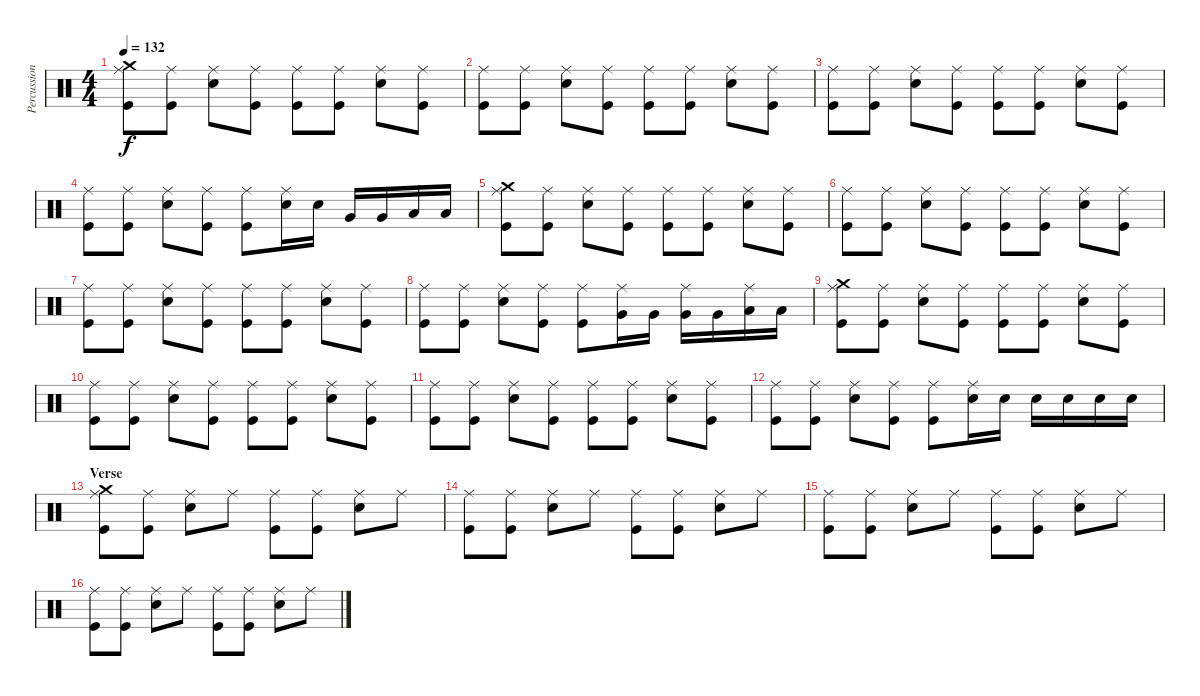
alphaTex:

\track ("Percussions" "Percussion") {instrument percussion}
\staff {score}
\articulation defaults
\ts (4 4)
\tempo 132
\clef neutral
\ks c
("Ride (middle)" "Crash medium (hit)" "Kick (hit)").8{dy f} ("Ride (middle)" "Kick (hit)").8 ("Ride (middle)" "Snare (hit) 2").8 ("Ride (middle)" "Kick (hit)").8 ("Ride (middle)" "Kick (hit)").8 ("Ride (middle)" "Kick (hit)").8 ("Ride (middle)" "Snare (hit) 2").8 ("Ride (middle)" "Kick (hit)").8 |
("Ride (middle)" "Kick (hit)").8 ("Ride (middle)" "Kick (hit)").8 ("Ride (middle)" "Snare (hit) 2").8 ("Ride (middle)" "Kick (hit)").8 ("Ride (middle)" "Kick (hit)").8 ("Ride (middle)" "Kick (hit)").8 ("Ride (middle)" "Snare (hit) 2").8 ("Ride (middle)" "Kick (hit)").8 |
("Ride (middle)" "Kick (hit)").8 ("Ride (middle)" "Kick (hit)").8 ("Ride (middle)" "Snare (hit) 2").8 ("Ride (middle)" "Kick (hit)").8 ("Ride (middle)" "Kick (hit)").8 ("Ride (middle)" "Kick (hit)").8 ("Ride (middle)" "Snare (hit) 2").8 ("Ride (middle)" "Kick (hit)").8 |
("Ride (middle)" "Kick (hit)").8 ("Ride (middle)" "Kick (hit)").8 ("Ride (middle)" "Snare (hit) 2").8 ("Ride (middle)" "Kick (hit)").8 ("Ride (middle)" "Kick (hit)").8 ("Ride (middle)" "Snare (hit) 2").16 "Snare (hit) 2".16 "Very Low Tom (hit)".16 "Very Low Tom (hit)".16 "Low Floor Tom (hit)".16 "Low Floor Tom (hit)".16 |
("Ride (middle)" "Crash medium (hit)" "Kick (hit)").8 ("Ride (middle)" "Kick (hit)").8 ("Ride (middle)" "Snare (hit) 2").8 ("Ride (middle)" "Kick (hit)").8 ("Ride (middle)" "Kick (hit)").8 ("Ride (middle)" "Kick (hit)").8 ("Ride (middle)" "Snare (hit) 2").8 ("Ride (middle)" "Kick (hit)").8 |
("Ride (middle)" "Kick (hit)").8 ("Ride (middle)" "Kick (hit)").8 ("Ride (middle)" "Snare (hit) 2").8 ("Ride (middle)" "Kick (hit)").8 ("Ride (middle)" "Kick (hit)").8 ("Ride (middle)" "Kick (hit)").8 ("Ride (middle)" "Snare (hit) 2").8 ("Ride (middle)" "Kick (hit)").8 |
("Ride (middle)" "Kick (hit)").8 ("Ride (middle)" "Kick (hit)").8 ("Ride (middle)" "Snare (hit) 2").8 ("Ride (middle)" "Kick (hit)").8 ("Ride (middle)" "Kick (hit)").8 ("Ride (middle)" "Kick (hit)").8 ("Ride (middle)" "Snare (hit) 2").8 ("Ride (middle)" "Kick (hit)").8 |
("Ride (middle)" "Kick (hit)").8 ("Ride (middle)" "Kick (hit)").8 ("Ride (middle)" "Snare (hit) 2").8 ("Ride (middle)" "Kick (hit)").8 ("Ride (middle)" "Kick (hit)").8 ("Ride (middle)" "Very Low Tom (hit)").16 "Very Low Tom (hit)".16 ("Ride (middle)" "Very Low Tom (hit)").16 "Very Low Tom (hit)".16 ("Ride (middle)" "Low Floor Tom (hit)").16 "Low Floor Tom (hit)".16 |
("Ride (middle)" "Crash medium (hit)" "Kick (hit)").8 ("Ride (middle)" "Kick (hit)").8 ("Ride (middle)" "Snare (hit) 2").8 ("Ride (middle)" "Kick (hit)").8 ("Ride (middle)" "Kick (hit)").8 ("Ride (middle)" "Kick (hit)").8 ("Ride (middle)" "Snare (hit) 2").8 ("Ride (middle)" "Kick (hit)").8 |
("Ride (middle)" "Kick (hit)").8 ("Ride (middle)" "Kick (hit)").8 ("Ride (middle)" "Snare (hit) 2").8 ("Ride (middle)" "Kick (hit)").8 ("Ride (middle)" "Kick (hit)").8 ("Ride (middle)" "Kick (hit)").8 ("Ride (middle)" "Snare (hit) 2").8 ("Ride (middle)" "Kick (hit)").8 |
("Ride (middle)" "Kick (hit)").8 ("Ride (middle)" "Kick (hit)").8 ("Ride (middle)" "Snare (hit) 2").8 ("Ride (middle)" "Kick (hit)").8 ("Ride (middle)" "Kick (hit)").8 ("Ride (middle)" "Kick (hit)").8 ("Ride (middle)" "Snare (hit) 2").8 ("Ride (middle)" "Kick (hit)").8 |
("Ride (middle)" "Kick (hit)").8 ("Ride (middle)" "Kick (hit)").8 ("Ride (middle)" "Snare (hit) 2").8 ("Ride (middle)" "Kick (hit)").8 ("Ride (middle)" "Kick (hit)").8 ("Ride (middle)" "Snare (hit) 2").16 "Snare (hit) 2".16 "Snare (hit) 2".16 "Snare (hit) 2".16 "Snare (hit) 2".16 "Snare (hit) 2".16 |
\section ("" "Verse")
("Ride (middle)" "Crash medium (hit)" "Kick (hit)").8 ("Ride (middle)" "Kick (hit)").8 ("Ride (middle)" "Snare (hit) 2").8 "Ride (middle)".8 ("Ride (middle)" "Kick (hit)").8 ("Ride (middle)" "Kick (hit)").8 ("Ride (middle)" "Snare (hit) 2").8 "Ride (middle)".8 |
("Ride (middle)" "Kick (hit)").8 ("Ride (middle)" "Kick (hit)").8 ("Ride (middle)" "Snare (hit) 2").8 "Ride (middle)".8 ("Ride (middle)" "Kick (hit)").8 ("Ride (middle)" "Kick (hit)").8 ("Ride (middle)" "Snare (hit) 2").8 "Ride (middle)".8 |
("Ride (middle)" "Kick (hit)").8 ("Ride (middle)" "Kick (hit)").8 ("Ride (middle)" "Snare (hit) 2").8 "Ride (middle)".8 ("Ride (middle)" "Kick (hit)").8 ("Ride (middle)" "Kick (hit)").8 ("Ride (middle)" "Snare (hit) 2").8 "Ride (middle)".8 |
("Ride (middle)" "Kick (hit)").8 ("Ride (middle)" "Kick (hit)").8 ("Ride (middle)" "Snare (hit) 2").8 "Ride (middle)".8 ("Ride (middle)" "Kick (hit)").8 ("Ride (middle)" "Kick (hit)").8 ("Ride (middle)" "Snare (hit) 2").8 "Ride (middle)".8
